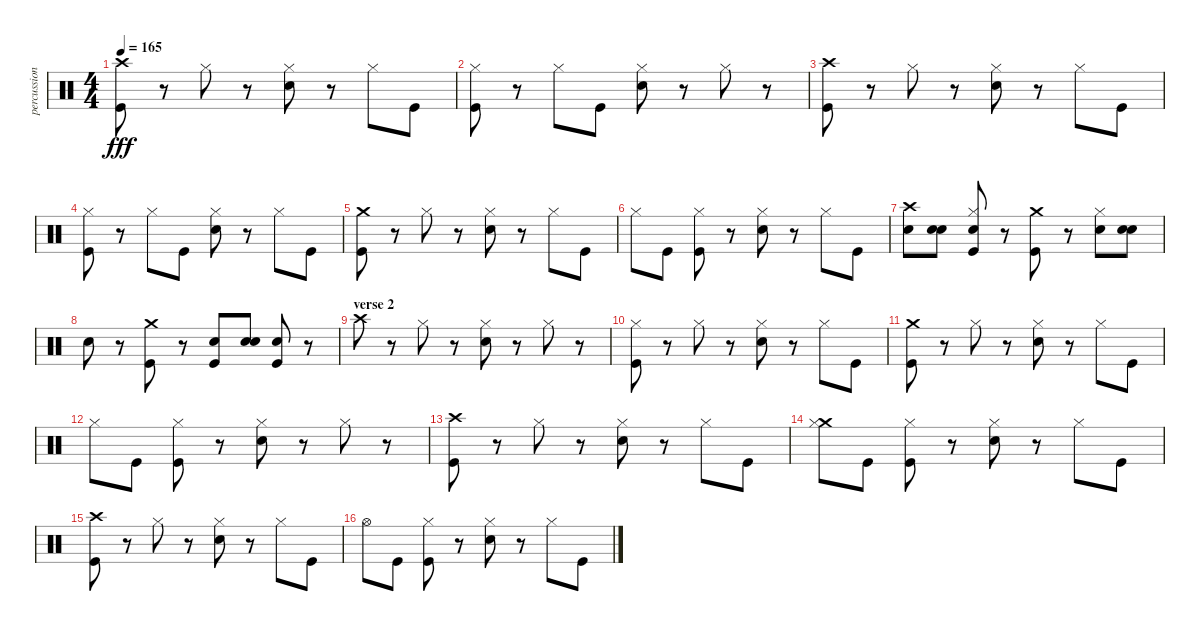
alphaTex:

\track ("percussion (Paice)" "percussion") {instrument percussion}
\staff {score}
\articulation defaults
\ts (4 4)
\tempo 165
\clef neutral
\ks c
("Crash high (hit)" "Kick (hit)").8{dy fff} r.8 "Hi-Hat (closed)".8 r.8 ("Snare (hit) 2" "Hi-Hat (closed)").8 r.8 "Hi-Hat (closed)".8 "Kick (hit)".8 |
("Kick (hit)" "Hi-Hat (closed)").8 r.8 "Hi-Hat (closed)".8 "Kick (hit)".8 ("Snare (hit) 2" "Hi-Hat (closed)").8 r.8 "Hi-Hat (closed)".8 r.8 |
("Crash high (hit)" "Kick (hit)").8 r.8 "Hi-Hat (closed)".8 r.8 ("Snare (hit) 2" "Hi-Hat (closed)").8 r.8 "Hi-Hat (closed)".8 "Kick (hit)".8 |
("Kick (hit)" "Hi-Hat (closed)").8 r.8 "Hi-Hat (closed)".8 "Kick (hit)".8 ("Snare (hit) 2" "Hi-Hat (closed)").8 r.8 "Hi-Hat (closed)".8 "Kick (hit)".8 |
("Crash medium (hit)" "Kick (hit)").8 r.8 "Hi-Hat (closed)".8 r.8 ("Snare (hit) 2" "Hi-Hat (closed)").8 r.8 "Hi-Hat (closed)".8 "Kick (hit)".8 |
"Hi-Hat (closed)".8 "Kick (hit)".8 ("Kick (hit)" "Hi-Hat (closed)").8 r.8 ("Snare (hit) 2" "Hi-Hat (closed)").8 r.8 "Hi-Hat (closed)".8 "Kick (hit)".8 |
("Snare (hit) 2" "Crash high (hit)").8 ("Snare (hit) 2" "Snare (hit) 2").8 ("Kick (hit)" "Hi-Hat (closed)" "Snare (hit) 2").8 r.8 ("Kick (hit)" "Crash medium (hit)").8 r.8 ("Snare (hit) 2" "Hi-Hat (closed)").8 ("Snare (hit) 2" "Snare (hit) 2").8 |
\section ("" "")
"Snare (hit) 2".8 r.8 ("Kick (hit)" "Crash medium (hit)").8 r.8 ("Snare (hit) 2" "Kick (hit)").8 ("Snare (hit) 2" "Snare (hit) 2").8 ("Kick (hit)" "Snare (hit) 2").8 r.8 |
\section ("" "verse 2")
"Crash high (hit)".8 r.8 "Hi-Hat (closed)".8 r.8 ("Snare (hit) 2" "Hi-Hat (closed)").8 r.8 "Hi-Hat (closed)".8 r.8 |
("Kick (hit)" "Hi-Hat (closed)").8 r.8 "Hi-Hat (closed)".8 r.8 ("Snare (hit) 2" "Hi-Hat (closed)").8 r.8 "Hi-Hat (closed)".8 "Kick (hit)".8 |
("Crash medium (hit)" "Kick (hit)").8 r.8 "Hi-Hat (closed)".8 r.8 ("Snare (hit) 2" "Hi-Hat (closed)").8 r.8 "Hi-Hat (closed)".8 "Kick (hit)".8 |
"Hi-Hat (closed)".8 "Kick (hit)".8 ("Kick (hit)" "Hi-Hat (closed)").8 r.8 ("Snare (hit) 2" "Hi-Hat (closed)").8 r.8 "Hi-Hat (closed)".8 r.8 |
("Crash high (hit)" "Kick (hit)").8 r.8 "Hi-Hat (closed)".8 r.8 ("Snare (hit) 2" "Hi-Hat (closed)").8 r.8 "Hi-Hat (closed)".8 "Kick (hit)".8 |
("Crash medium (hit)" "Hi-Hat (closed)").8 "Kick (hit)".8 ("Kick (hit)" "Hi-Hat (closed)").8 r.8 ("Snare (hit) 2" "Hi-Hat (closed)").8 r.8 "Hi-Hat (closed)".8 "Kick (hit)".8 |
("Crash high (hit)" "Kick (hit)").8 r.8 "Hi-Hat (closed)".8 r.8 ("Snare (hit) 2" "Hi-Hat (closed)").8 r.8 "Hi-Hat (closed)".8 "Kick (hit)".8 |
"Hi-Hat (open)".8 "Kick (hit)".8 ("Kick (hit)" "Hi-Hat (closed)").8 r.8 ("Snare (hit) 2" "Hi-Hat (closed)").8 r.8 "Hi-Hat (closed)".8 "Kick (hit)".8
